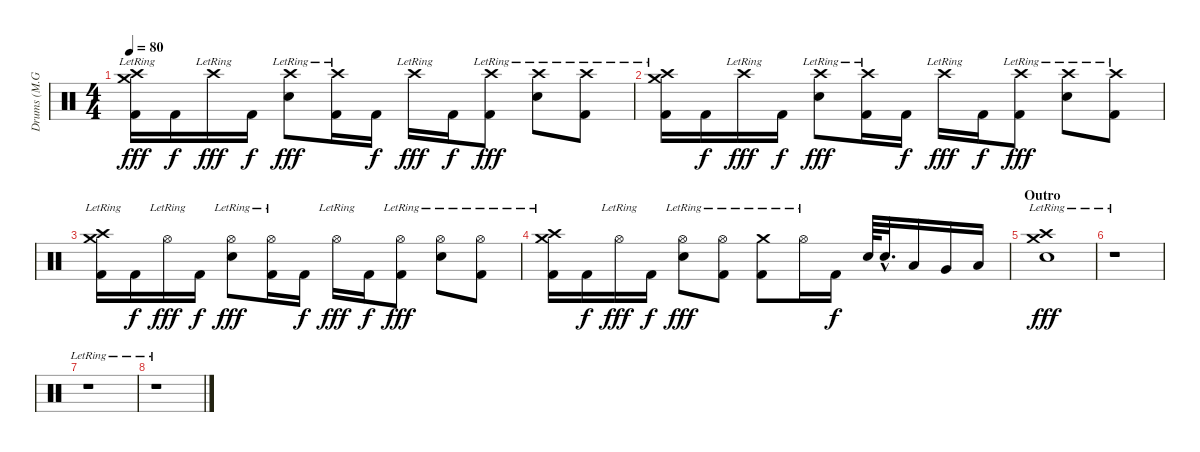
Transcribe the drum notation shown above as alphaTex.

\track ("Drums (M.Grosskopf)" "Drums (M.G") {instrument percussion}
\staff {score}
\articulation defaults
\ts (4 4)
\tempo 80
\clef neutral
\ks c
("Crash high (hit)"{lr} "Crash medium (hit)"{lr} "Kick (hit) 2").16{dy fff} "Kick (hit) 2".16{dy f} "Crash high (hit)"{lr}.16{dy fff} "Kick (hit) 2".16{dy f} ("Crash high (hit)"{lr} "Electric Snare (hit)").8{dy fff} ("Crash high (hit)"{lr} "Kick (hit) 2").16 "Kick (hit) 2".16{dy f} "Crash high (hit)"{lr}.16{dy fff} "Kick (hit) 2".16{dy f} ("Crash high (hit)"{lr} "Kick (hit) 2").8{dy fff} ("Crash high (hit)"{lr} "Electric Snare (hit)").8 ("Crash high (hit)"{lr} "Kick (hit) 2").8 |
("Crash high (hit)"{lr} "Crash medium (hit)"{lr} "Kick (hit) 2").16 "Kick (hit) 2".16{dy f} "Crash high (hit)"{lr}.16{dy fff} "Kick (hit) 2".16{dy f} ("Crash high (hit)"{lr} "Electric Snare (hit)").8{dy fff} ("Crash high (hit)"{lr} "Kick (hit) 2").16 "Kick (hit) 2".16{dy f} "Crash high (hit)"{lr}.16{dy fff} "Kick (hit) 2".16{dy f} ("Crash high (hit)"{lr} "Kick (hit) 2").8{dy fff} ("Crash high (hit)"{lr} "Electric Snare (hit)").8 ("Crash high (hit)"{lr} "Kick (hit) 2").8 |
("Crash high (hit)"{lr} "Crash medium (hit)"{lr} "Kick (hit) 2").16 "Kick (hit) 2".16{dy f} "Hi-Hat (open)"{lr}.16{dy fff} "Kick (hit) 2".16{dy f} ("Hi-Hat (open)"{lr} "Electric Snare (hit)").8{dy fff} ("Hi-Hat (open)"{lr} "Kick (hit) 2").16 "Kick (hit) 2".16{dy f} "Hi-Hat (open)"{lr}.16{dy fff} "Kick (hit) 2".16{dy f} ("Hi-Hat (open)"{lr} "Kick (hit) 2").8{dy fff} ("Hi-Hat (open)"{lr} "Electric Snare (hit)").8 ("Hi-Hat (open)"{lr} "Kick (hit) 2").8 |
("Crash high (hit)"{lr} "Crash medium (hit)"{lr} "Kick (hit) 2").16 "Kick (hit) 2".16{dy f} "Hi-Hat (open)"{lr}.16{dy fff} "Kick (hit) 2".16{dy f} ("Hi-Hat (open)"{lr} "Electric Snare (hit)").8{dy fff} ("Hi-Hat (open)"{lr} "Kick (hit) 2").8 ("Crash medium (hit)"{lr} "Kick (hit) 2").8 "Hi-Hat (open)"{lr}.16 "Kick (hit) 2".16{dy f} "Electric Snare (hit)".64 "Electric Snare (hit)"{hac}.32{d} "Low Tom (hit)".16 "Very Low Tom (hit)".16 "Low Floor Tom (hit)".16 |
\section ("" "Outro")
("Crash high (hit)"{lr} "Crash medium (hit)"{lr} "Electric Snare (hit)").1{dy fff} |
r.1 |
r.1 |
r.1
